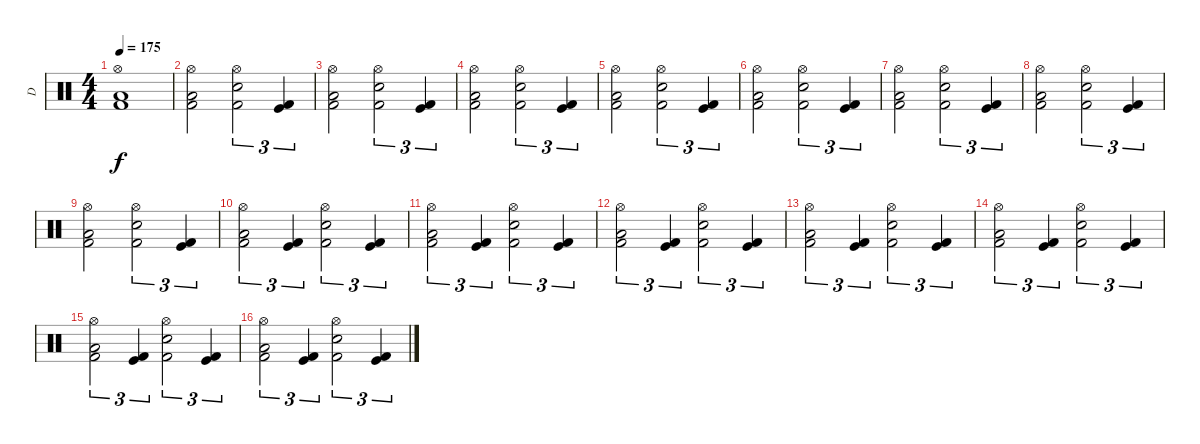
\track ("D" "D") {instrument percussion}
\staff {score}
\articulation defaults
\ts (4 4)
\tempo 175
\clef neutral
\ks c
("Hi-Hat (open)" "Low Floor Tom (hit)" "Kick (hit) 2").1{dy f} |
("Hi-Hat (open)" "Low Floor Tom (hit)" "Kick (hit) 2").2 ("Hi-Hat (open)" "Electric Snare (hit)" "Kick (hit) 2").2{tu (3 2)} ("Kick (hit)" "Kick (hit) 2").4{tu (3 2)} |
("Hi-Hat (open)" "Low Floor Tom (hit)" "Kick (hit) 2").2 ("Hi-Hat (open)" "Electric Snare (hit)" "Kick (hit) 2").2{tu (3 2)} ("Kick (hit)" "Kick (hit) 2").4{tu (3 2)} |
("Hi-Hat (open)" "Low Floor Tom (hit)" "Kick (hit) 2").2 ("Hi-Hat (open)" "Electric Snare (hit)" "Kick (hit) 2").2{tu (3 2)} ("Kick (hit)" "Kick (hit) 2").4{tu (3 2)} |
("Hi-Hat (open)" "Low Floor Tom (hit)" "Kick (hit) 2").2 ("Hi-Hat (open)" "Electric Snare (hit)" "Kick (hit) 2").2{tu (3 2)} ("Kick (hit)" "Kick (hit) 2").4{tu (3 2)} |
("Hi-Hat (open)" "Low Floor Tom (hit)" "Kick (hit) 2").2 ("Hi-Hat (open)" "Electric Snare (hit)" "Kick (hit) 2").2{tu (3 2)} ("Kick (hit)" "Kick (hit) 2").4{tu (3 2)} |
("Hi-Hat (open)" "Low Floor Tom (hit)" "Kick (hit) 2").2 ("Hi-Hat (open)" "Electric Snare (hit)" "Kick (hit) 2").2{tu (3 2)} ("Kick (hit)" "Kick (hit) 2").4{tu (3 2)} |
("Hi-Hat (open)" "Low Floor Tom (hit)" "Kick (hit) 2").2 ("Hi-Hat (open)" "Electric Snare (hit)" "Kick (hit) 2").2{tu (3 2)} ("Kick (hit)" "Kick (hit) 2").4{tu (3 2)} |
("Hi-Hat (open)" "Low Floor Tom (hit)" "Kick (hit) 2").2 ("Hi-Hat (open)" "Electric Snare (hit)" "Kick (hit) 2").2{tu (3 2)} ("Kick (hit)" "Kick (hit) 2").4{tu (3 2)} |
("Hi-Hat (open)" "Low Floor Tom (hit)" "Kick (hit) 2").2{tu (3 2)} ("Kick (hit)" "Kick (hit) 2").4{tu (3 2)} ("Hi-Hat (open)" "Electric Snare (hit)" "Kick (hit) 2").2{tu (3 2)} ("Kick (hit)" "Kick (hit) 2").4{tu (3 2)} |
("Hi-Hat (open)" "Low Floor Tom (hit)" "Kick (hit) 2").2{tu (3 2)} ("Kick (hit)" "Kick (hit) 2").4{tu (3 2)} ("Hi-Hat (open)" "Electric Snare (hit)" "Kick (hit) 2").2{tu (3 2)} ("Kick (hit)" "Kick (hit) 2").4{tu (3 2)} |
("Hi-Hat (open)" "Low Floor Tom (hit)" "Kick (hit) 2").2{tu (3 2)} ("Kick (hit)" "Kick (hit) 2").4{tu (3 2)} ("Hi-Hat (open)" "Electric Snare (hit)" "Kick (hit) 2").2{tu (3 2)} ("Kick (hit)" "Kick (hit) 2").4{tu (3 2)} |
("Hi-Hat (open)" "Low Floor Tom (hit)" "Kick (hit) 2").2{tu (3 2)} ("Kick (hit)" "Kick (hit) 2").4{tu (3 2)} ("Hi-Hat (open)" "Electric Snare (hit)" "Kick (hit) 2").2{tu (3 2)} ("Kick (hit)" "Kick (hit) 2").4{tu (3 2)} |
("Hi-Hat (open)" "Low Floor Tom (hit)" "Kick (hit) 2").2{tu (3 2)} ("Kick (hit)" "Kick (hit) 2").4{tu (3 2)} ("Hi-Hat (open)" "Electric Snare (hit)" "Kick (hit) 2").2{tu (3 2)} ("Kick (hit)" "Kick (hit) 2").4{tu (3 2)} |
("Hi-Hat (open)" "Low Floor Tom (hit)" "Kick (hit) 2").2{tu (3 2)} ("Kick (hit)" "Kick (hit) 2").4{tu (3 2)} ("Hi-Hat (open)" "Electric Snare (hit)" "Kick (hit) 2").2{tu (3 2)} ("Kick (hit)" "Kick (hit) 2").4{tu (3 2)} |
("Hi-Hat (open)" "Low Floor Tom (hit)" "Kick (hit) 2").2{tu (3 2)} ("Kick (hit)" "Kick (hit) 2").4{tu (3 2)} ("Hi-Hat (open)" "Electric Snare (hit)" "Kick (hit) 2").2{tu (3 2)} ("Kick (hit)" "Kick (hit) 2").4{tu (3 2)}
